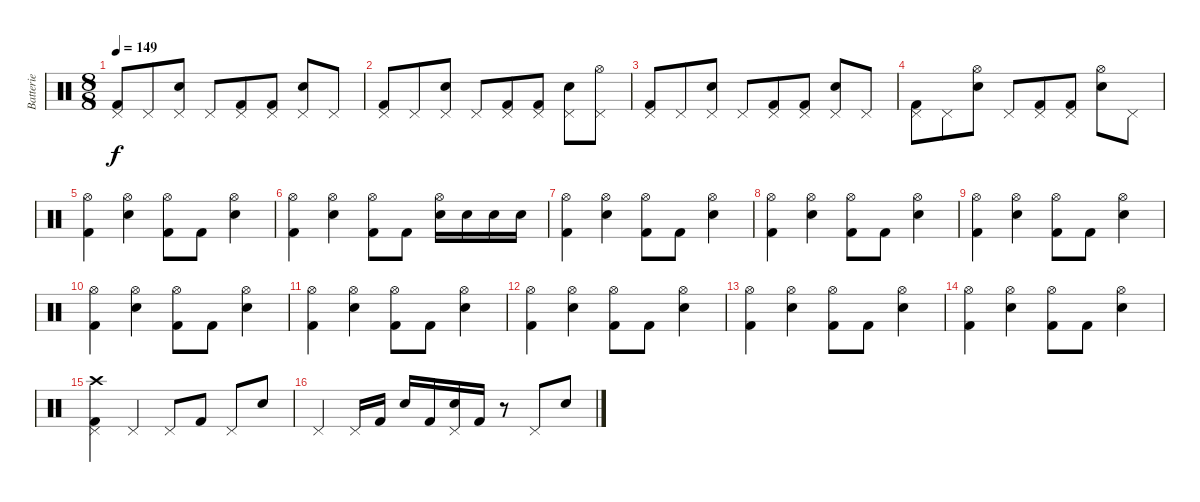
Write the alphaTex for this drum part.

\track ("Batterie" "Batterie") {instrument percussion}
\staff {score}
\articulation defaults
\ts (8 8)
\tempo 149
\clef neutral
\ks c
("Pedal Hi-Hat (hit)" "Kick (hit) 2").8{dy f} "Pedal Hi-Hat (hit)".8 ("Pedal Hi-Hat (hit)" "Snare (hit) 2").8 "Pedal Hi-Hat (hit)".8 ("Pedal Hi-Hat (hit)" "Kick (hit) 2").8 ("Pedal Hi-Hat (hit)" "Kick (hit) 2").8 ("Pedal Hi-Hat (hit)" "Snare (hit) 2").8 "Pedal Hi-Hat (hit)".8 |
("Pedal Hi-Hat (hit)" "Kick (hit) 2").8 "Pedal Hi-Hat (hit)".8 ("Pedal Hi-Hat (hit)" "Snare (hit) 2").8 "Pedal Hi-Hat (hit)".8 ("Pedal Hi-Hat (hit)" "Kick (hit) 2").8 ("Pedal Hi-Hat (hit)" "Kick (hit) 2").8 ("Pedal Hi-Hat (hit)" "Snare (hit) 2").8 ("Pedal Hi-Hat (hit)" "Hi-Hat (open)").8 |
("Pedal Hi-Hat (hit)" "Kick (hit) 2").8 "Pedal Hi-Hat (hit)".8 ("Pedal Hi-Hat (hit)" "Snare (hit) 2").8 "Pedal Hi-Hat (hit)".8 ("Pedal Hi-Hat (hit)" "Kick (hit) 2").8 ("Pedal Hi-Hat (hit)" "Kick (hit) 2").8 ("Pedal Hi-Hat (hit)" "Snare (hit) 2").8 "Pedal Hi-Hat (hit)".8 |
("Pedal Hi-Hat (hit)" "Kick (hit) 2").8 "Pedal Hi-Hat (hit)".8 ("Hi-Hat (open)" "Snare (hit) 2").8 "Pedal Hi-Hat (hit)".8 ("Pedal Hi-Hat (hit)" "Kick (hit) 2").8 ("Pedal Hi-Hat (hit)" "Kick (hit) 2").8 ("Hi-Hat (open)" "Snare (hit) 2").8 "Pedal Hi-Hat (hit)".8 |
("Hi-Hat (open)" "Kick (hit) 2").4 ("Hi-Hat (open)" "Snare (hit) 2").4 ("Hi-Hat (open)" "Kick (hit) 2").8 "Kick (hit) 2".8 ("Hi-Hat (open)" "Snare (hit) 2").4 |
("Hi-Hat (open)" "Kick (hit) 2").4 ("Hi-Hat (open)" "Snare (hit) 2").4 ("Hi-Hat (open)" "Kick (hit) 2").8 "Kick (hit) 2".8 ("Hi-Hat (open)" "Snare (hit) 2").16 "Snare (hit) 2".16 "Snare (hit) 2".16 "Snare (hit) 2".16 |
("Hi-Hat (open)" "Kick (hit) 2").4 ("Hi-Hat (open)" "Snare (hit) 2").4 ("Hi-Hat (open)" "Kick (hit) 2").8 "Kick (hit) 2".8 ("Hi-Hat (open)" "Snare (hit) 2").4 |
("Hi-Hat (open)" "Kick (hit) 2").4 ("Hi-Hat (open)" "Snare (hit) 2").4 ("Hi-Hat (open)" "Kick (hit) 2").8 "Kick (hit) 2".8 ("Hi-Hat (open)" "Snare (hit) 2").4 |
("Hi-Hat (open)" "Kick (hit) 2").4 ("Hi-Hat (open)" "Snare (hit) 2").4 ("Hi-Hat (open)" "Kick (hit) 2").8 "Kick (hit) 2".8 ("Hi-Hat (open)" "Snare (hit) 2").4 |
("Hi-Hat (open)" "Kick (hit) 2").4 ("Hi-Hat (open)" "Snare (hit) 2").4 ("Hi-Hat (open)" "Kick (hit) 2").8 "Kick (hit) 2".8 ("Hi-Hat (open)" "Snare (hit) 2").4 |
("Hi-Hat (open)" "Kick (hit) 2").4 ("Hi-Hat (open)" "Snare (hit) 2").4 ("Hi-Hat (open)" "Kick (hit) 2").8 "Kick (hit) 2".8 ("Hi-Hat (open)" "Snare (hit) 2").4 |
("Hi-Hat (open)" "Kick (hit) 2").4 ("Hi-Hat (open)" "Snare (hit) 2").4 ("Hi-Hat (open)" "Kick (hit) 2").8 "Kick (hit) 2".8 ("Hi-Hat (open)" "Snare (hit) 2").4 |
("Hi-Hat (open)" "Kick (hit) 2").4 ("Hi-Hat (open)" "Snare (hit) 2").4 ("Hi-Hat (open)" "Kick (hit) 2").8 "Kick (hit) 2".8 ("Hi-Hat (open)" "Snare (hit) 2").4 |
("Hi-Hat (open)" "Kick (hit) 2").4 ("Hi-Hat (open)" "Snare (hit) 2").4 ("Hi-Hat (open)" "Kick (hit) 2").8 "Kick (hit) 2".8 ("Hi-Hat (open)" "Snare (hit) 2").4 |
("Pedal Hi-Hat (hit)" "Kick (hit) 2" "Crash high (hit)").4 "Pedal Hi-Hat (hit)".4 "Pedal Hi-Hat (hit)".8 "Kick (hit) 2".8 "Pedal Hi-Hat (hit)".8 "Snare (hit) 2".8 |
"Pedal Hi-Hat (hit)".4 "Pedal Hi-Hat (hit)".16 "Kick (hit) 2".16 "Snare (hit) 2".16 "Kick (hit) 2".16 ("Pedal Hi-Hat (hit)" "Snare (hit) 2").16 "Kick (hit) 2".16 r.8 "Pedal Hi-Hat (hit)".8 "Snare (hit) 2".8
